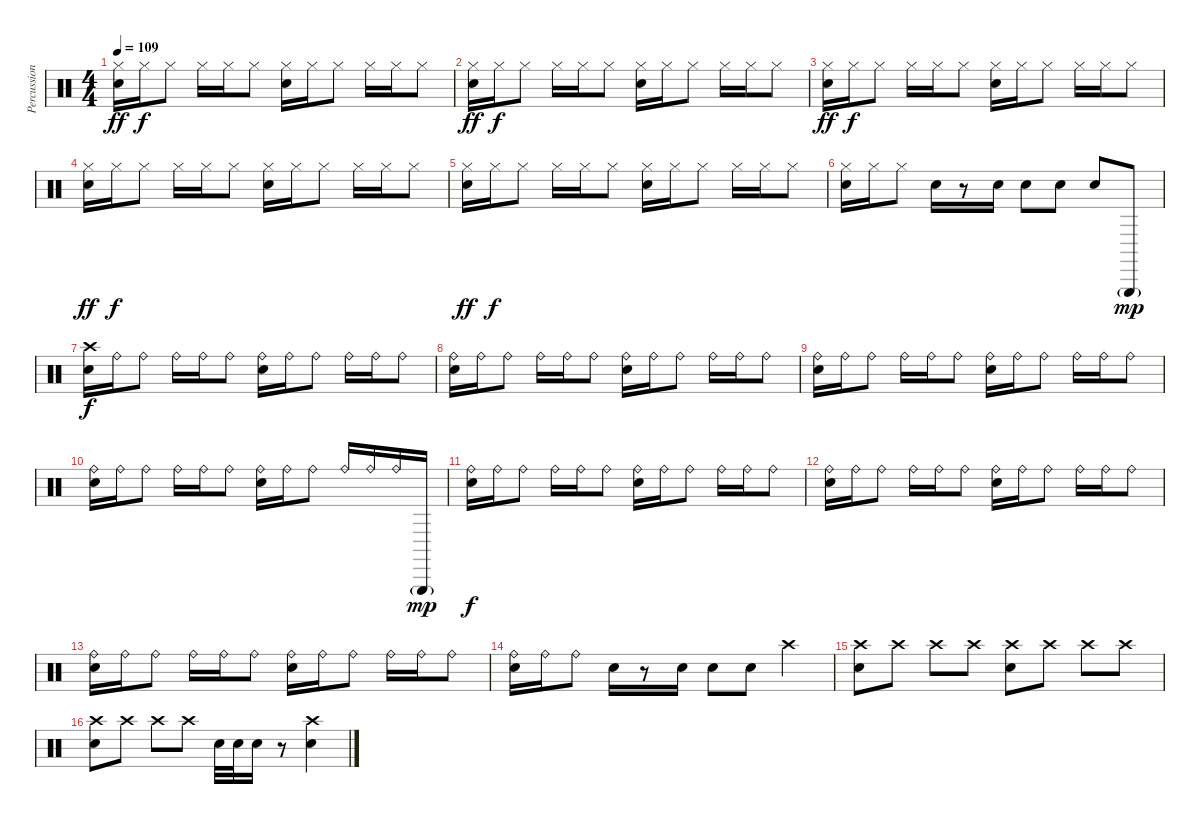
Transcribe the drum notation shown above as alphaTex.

\track ("Percussions" "Percussion") {instrument percussion}
\staff {score}
\articulation defaults
\ts (4 4)
\tempo 109
\clef neutral
\ks c
("Hi-Hat (closed)" "Electric Snare (hit)").16{dy ff} "Hi-Hat (closed)".16{dy f} "Hi-Hat (closed)".8 "Hi-Hat (closed)".16 "Hi-Hat (closed)".16 "Hi-Hat (closed)".8 ("Hi-Hat (closed)" "Electric Snare (hit)").16 "Hi-Hat (closed)".16 "Hi-Hat (closed)".8 "Hi-Hat (closed)".16 "Hi-Hat (closed)".16 "Hi-Hat (closed)".8 |
("Hi-Hat (closed)" "Electric Snare (hit)").16{dy ff} "Hi-Hat (closed)".16{dy f} "Hi-Hat (closed)".8 "Hi-Hat (closed)".16 "Hi-Hat (closed)".16 "Hi-Hat (closed)".8 ("Hi-Hat (closed)" "Electric Snare (hit)").16 "Hi-Hat (closed)".16 "Hi-Hat (closed)".8 "Hi-Hat (closed)".16 "Hi-Hat (closed)".16 "Hi-Hat (closed)".8 |
("Hi-Hat (closed)" "Electric Snare (hit)").16{dy ff} "Hi-Hat (closed)".16{dy f} "Hi-Hat (closed)".8 "Hi-Hat (closed)".16 "Hi-Hat (closed)".16 "Hi-Hat (closed)".8 ("Hi-Hat (closed)" "Electric Snare (hit)").16 "Hi-Hat (closed)".16 "Hi-Hat (closed)".8 "Hi-Hat (closed)".16 "Hi-Hat (closed)".16 "Hi-Hat (closed)".8 |
("Hi-Hat (closed)" "Electric Snare (hit)").16{dy ff} "Hi-Hat (closed)".16{dy f} "Hi-Hat (closed)".8 "Hi-Hat (closed)".16 "Hi-Hat (closed)".16 "Hi-Hat (closed)".8 ("Hi-Hat (closed)" "Electric Snare (hit)").16 "Hi-Hat (closed)".16 "Hi-Hat (closed)".8 "Hi-Hat (closed)".16 "Hi-Hat (closed)".16 "Hi-Hat (closed)".8 |
("Hi-Hat (closed)" "Electric Snare (hit)").16{dy ff} "Hi-Hat (closed)".16{dy f} "Hi-Hat (closed)".8 "Hi-Hat (closed)".16 "Hi-Hat (closed)".16 "Hi-Hat (closed)".8 ("Hi-Hat (closed)" "Electric Snare (hit)").16 "Hi-Hat (closed)".16 "Hi-Hat (closed)".8 "Hi-Hat (closed)".16 "Hi-Hat (closed)".16 "Hi-Hat (closed)".8 |
("Hi-Hat (closed)" "Electric Snare (hit)").16 "Hi-Hat (closed)".16 "Hi-Hat (closed)".8 "Electric Snare (hit)".16 r.8 "Electric Snare (hit)".16 "Electric Snare (hit)".8 "Electric Snare (hit)".8 "Electric Snare (hit)".8 "Triangle (hit)"{g}.8{dy mp} |
("Crash high (hit)" "Electric Snare (hit)").16{dy f} "Ride (bell)".16 "Ride (bell)".8 "Ride (bell)".16 "Ride (bell)".16 "Ride (bell)".8 ("Ride (bell)" "Electric Snare (hit)").16 "Ride (bell)".16 "Ride (bell)".8 "Ride (bell)".16 "Ride (bell)".16 "Ride (bell)".8 |
("Ride (bell)" "Electric Snare (hit)").16 "Ride (bell)".16 "Ride (bell)".8 "Ride (bell)".16 "Ride (bell)".16 "Ride (bell)".8 ("Ride (bell)" "Electric Snare (hit)").16 "Ride (bell)".16 "Ride (bell)".8 "Ride (bell)".16 "Ride (bell)".16 "Ride (bell)".8 |
("Ride (bell)" "Electric Snare (hit)").16 "Ride (bell)".16 "Ride (bell)".8 "Ride (bell)".16 "Ride (bell)".16 "Ride (bell)".8 ("Ride (bell)" "Electric Snare (hit)").16 "Ride (bell)".16 "Ride (bell)".8 "Ride (bell)".16 "Ride (bell)".16 "Ride (bell)".8 |
("Ride (bell)" "Electric Snare (hit)").16 "Ride (bell)".16 "Ride (bell)".8 "Ride (bell)".16 "Ride (bell)".16 "Ride (bell)".8 ("Ride (bell)" "Electric Snare (hit)").16 "Ride (bell)".16 "Ride (bell)".8 "Ride (bell)".16 "Ride (bell)".16 "Ride (bell)".16 "Triangle (hit)"{g}.16{dy mp} |
("Ride (bell)" "Electric Snare (hit)").16{dy f} "Ride (bell)".16 "Ride (bell)".8 "Ride (bell)".16 "Ride (bell)".16 "Ride (bell)".8 ("Ride (bell)" "Electric Snare (hit)").16 "Ride (bell)".16 "Ride (bell)".8 "Ride (bell)".16 "Ride (bell)".16 "Ride (bell)".8 |
("Ride (bell)" "Electric Snare (hit)").16 "Ride (bell)".16 "Ride (bell)".8 "Ride (bell)".16 "Ride (bell)".16 "Ride (bell)".8 ("Ride (bell)" "Electric Snare (hit)").16 "Ride (bell)".16 "Ride (bell)".8 "Ride (bell)".16 "Ride (bell)".16 "Ride (bell)".8 |
("Ride (bell)" "Electric Snare (hit)").16 "Ride (bell)".16 "Ride (bell)".8 "Ride (bell)".16 "Ride (bell)".16 "Ride (bell)".8 ("Ride (bell)" "Electric Snare (hit)").16 "Ride (bell)".16 "Ride (bell)".8 "Ride (bell)".16 "Ride (bell)".16 "Ride (bell)".8 |
("Ride (bell)" "Electric Snare (hit)").16 "Ride (bell)".16 "Ride (bell)".8 "Electric Snare (hit)".16 r.8 "Electric Snare (hit)".16 "Electric Snare (hit)".8 "Electric Snare (hit)".8 "Crash high (hit)".4 |
("Crash high (hit)" "Electric Snare (hit)").8 "Crash high (hit)".8 "Crash high (hit)".8 "Crash high (hit)".8 ("Crash high (hit)" "Electric Snare (hit)").8 "Crash high (hit)".8 "Crash high (hit)".8 "Crash high (hit)".8 |
("Crash high (hit)" "Electric Snare (hit)").8 "Crash high (hit)".8 "Crash high (hit)".8 "Crash high (hit)".8 "Electric Snare (hit)".32 "Electric Snare (hit)".32 "Electric Snare (hit)".16 r.8 ("Crash high (hit)" "Electric Snare (hit)").4
